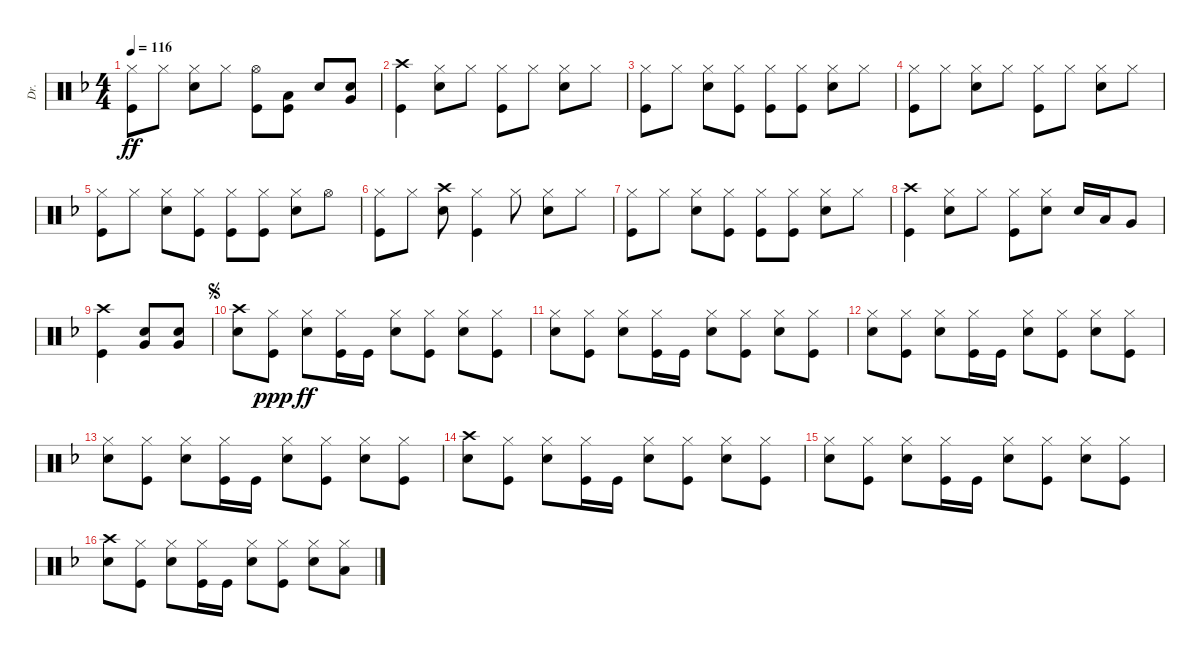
\track ("Dr." "Dr.") {instrument percussion}
\staff {score}
\articulation defaults
\ts (4 4)
\tempo 116
\clef neutral
\ks f
("Kick (hit)" "Hi-Hat (closed)").8{dy ff} "Hi-Hat (closed)".8 ("Snare (hit) 2" "Hi-Hat (closed)").8 "Hi-Hat (closed)".8 ("Kick (hit)" "Hi-Hat (open)").8 ("Kick (hit)" "Low Tom (hit)").8 "Snare (hit) 2".8 ("Very Low Tom (hit)" "Snare (hit) 2").8 |
("Kick (hit)" "Crash high (hit)").4 ("Snare (hit) 2" "Hi-Hat (closed)").8 "Hi-Hat (closed)".8 ("Kick (hit)" "Hi-Hat (closed)").8 "Hi-Hat (closed)".8 ("Snare (hit) 2" "Hi-Hat (closed)").8 "Hi-Hat (closed)".8 |
("Kick (hit)" "Hi-Hat (closed)").8 "Hi-Hat (closed)".8 ("Snare (hit) 2" "Hi-Hat (closed)").8 ("Kick (hit)" "Hi-Hat (closed)").8 ("Kick (hit)" "Hi-Hat (closed)").8 ("Kick (hit)" "Hi-Hat (closed)").8 ("Snare (hit) 2" "Hi-Hat (closed)").8 "Hi-Hat (closed)".8 |
("Kick (hit)" "Hi-Hat (closed)").8 "Hi-Hat (closed)".8 ("Snare (hit) 2" "Hi-Hat (closed)").8 "Hi-Hat (closed)".8 ("Kick (hit)" "Hi-Hat (closed)").8 "Hi-Hat (closed)".8 ("Snare (hit) 2" "Hi-Hat (closed)").8 "Hi-Hat (closed)".8 |
("Kick (hit)" "Hi-Hat (closed)").8 "Hi-Hat (closed)".8 ("Snare (hit) 2" "Hi-Hat (closed)").8 ("Kick (hit)" "Hi-Hat (closed)").8 ("Kick (hit)" "Hi-Hat (closed)").8 ("Kick (hit)" "Hi-Hat (closed)").8 ("Snare (hit) 2" "Hi-Hat (closed)").8 "Hi-Hat (open)".8 |
("Kick (hit)" "Hi-Hat (closed)").8 "Hi-Hat (closed)".8 ("Snare (hit) 2" "Crash high (hit)").8 ("Kick (hit)" "Hi-Hat (closed)").4 "Hi-Hat (closed)".8 ("Snare (hit) 2" "Hi-Hat (closed)").8 "Hi-Hat (closed)".8 |
("Kick (hit)" "Hi-Hat (closed)").8 "Hi-Hat (closed)".8 ("Snare (hit) 2" "Hi-Hat (closed)").8 ("Kick (hit)" "Hi-Hat (closed)").8 ("Kick (hit)" "Hi-Hat (closed)").8 ("Kick (hit)" "Hi-Hat (closed)").8 ("Snare (hit) 2" "Hi-Hat (closed)").8 "Hi-Hat (closed)".8 |
("Kick (hit)" "Crash high (hit)").4 ("Snare (hit) 2" "Hi-Hat (closed)").8 "Hi-Hat (closed)".8 ("Kick (hit)" "Hi-Hat (closed)").8 ("Snare (hit) 2" "Hi-Hat (closed)").8 "Snare (hit) 2".16 "Low Tom (hit)".16 "Very Low Tom (hit)".8 |
("Crash high (hit)" "Kick (hit)").4 ("Snare (hit) 2" "Very Low Tom (hit)").8 ("Very Low Tom (hit)" "Snare (hit) 2").8 |
\jump segno
("Snare (hit) 2" "Crash high (hit)").8 ("Kick (hit)" "Hi-Hat (closed)").8{dy ppp} ("Snare (hit) 2" "Hi-Hat (closed)").8{dy ff} ("Kick (hit)" "Hi-Hat (closed)").16 "Kick (hit)".16 ("Snare (hit) 2" "Hi-Hat (closed)").8 ("Kick (hit)" "Hi-Hat (closed)").8 ("Snare (hit) 2" "Hi-Hat (closed)").8 ("Kick (hit)" "Hi-Hat (closed)").8 |
("Snare (hit) 2" "Hi-Hat (closed)").8 ("Kick (hit)" "Hi-Hat (closed)").8 ("Snare (hit) 2" "Hi-Hat (closed)").8 ("Kick (hit)" "Hi-Hat (closed)").16 "Kick (hit)".16 ("Snare (hit) 2" "Hi-Hat (closed)").8 ("Kick (hit)" "Hi-Hat (closed)").8 ("Snare (hit) 2" "Hi-Hat (closed)").8 ("Kick (hit)" "Hi-Hat (closed)").8 |
("Snare (hit) 2" "Hi-Hat (closed)").8 ("Kick (hit)" "Hi-Hat (closed)").8 ("Snare (hit) 2" "Hi-Hat (closed)").8 ("Kick (hit)" "Hi-Hat (closed)").16 "Kick (hit)".16 ("Snare (hit) 2" "Hi-Hat (closed)").8 ("Kick (hit)" "Hi-Hat (closed)").8 ("Snare (hit) 2" "Hi-Hat (closed)").8 ("Kick (hit)" "Hi-Hat (closed)").8 |
("Snare (hit) 2" "Hi-Hat (closed)").8 ("Kick (hit)" "Hi-Hat (closed)").8 ("Snare (hit) 2" "Hi-Hat (closed)").8 ("Kick (hit)" "Hi-Hat (closed)").16 "Kick (hit)".16 ("Snare (hit) 2" "Hi-Hat (closed)").8 ("Kick (hit)" "Hi-Hat (closed)").8 ("Snare (hit) 2" "Hi-Hat (closed)").8 ("Kick (hit)" "Hi-Hat (closed)").8 |
("Snare (hit) 2" "Crash high (hit)").8 ("Kick (hit)" "Hi-Hat (closed)").8 ("Snare (hit) 2" "Hi-Hat (closed)").8 ("Kick (hit)" "Hi-Hat (closed)").16 "Kick (hit)".16 ("Snare (hit) 2" "Hi-Hat (closed)").8 ("Kick (hit)" "Hi-Hat (closed)").8 ("Snare (hit) 2" "Hi-Hat (closed)").8 ("Kick (hit)" "Hi-Hat (closed)").8 |
("Snare (hit) 2" "Hi-Hat (closed)").8 ("Kick (hit)" "Hi-Hat (closed)").8 ("Snare (hit) 2" "Hi-Hat (closed)").8 ("Kick (hit)" "Hi-Hat (closed)").16 "Kick (hit)".16 ("Snare (hit) 2" "Hi-Hat (closed)").8 ("Kick (hit)" "Hi-Hat (closed)").8 ("Snare (hit) 2" "Hi-Hat (closed)").8 ("Kick (hit)" "Hi-Hat (closed)").8 |
("Snare (hit) 2" "Crash high (hit)").8 ("Kick (hit)" "Hi-Hat (closed)").8 ("Snare (hit) 2" "Hi-Hat (closed)").8 ("Kick (hit)" "Hi-Hat (closed)").16 "Kick (hit)".16 ("Snare (hit) 2" "Hi-Hat (closed)").8 ("Kick (hit)" "Hi-Hat (closed)").8 ("Snare (hit) 2" "Hi-Hat (closed)").8 ("Low Tom (hit)" "Hi-Hat (closed)").8
